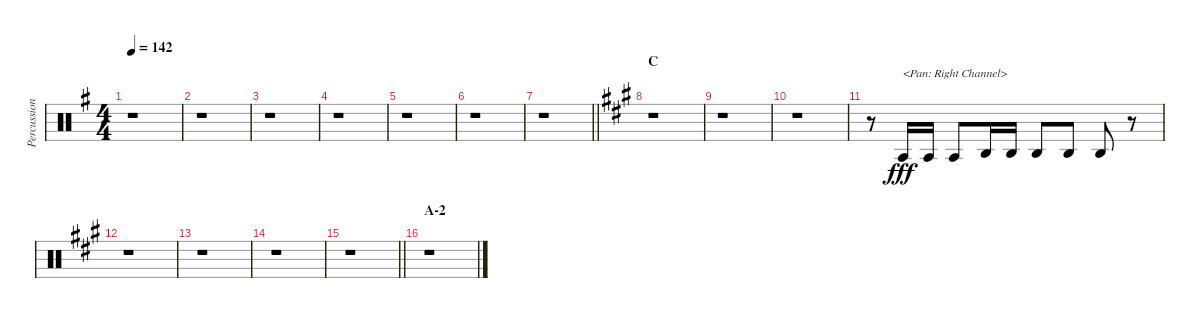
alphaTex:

\track ("Percussion" "Percussion") {instrument percussion}
\staff {score}
\articulation defaults
\ts (4 4)
\tempo 142
\clef neutral
\ks g
r.1{dy fff} |
r.1 |
r.1 |
r.1 |
r.1 |
r.1 |
\barLineRight lightlight
r.1 |
\section ("" "C")
\ks a
r.1 |
r.1 |
r.1 |
r.8 "Agogo tow (hit)".16{txt "<Pan: Right Channel>" balance 16} "Agogo tow (hit)".16 "Agogo tow (hit)".8 "Agogo high (hit)".16 "Agogo high (hit)".16 "Agogo high (hit)".8 "Agogo high (hit)".8 "Agogo high (hit)".8 r.8{balance 8} |
r.1 |
r.1 |
r.1 |
\barLineRight lightlight
r.1 |
\section ("" "A-2")
r.1
